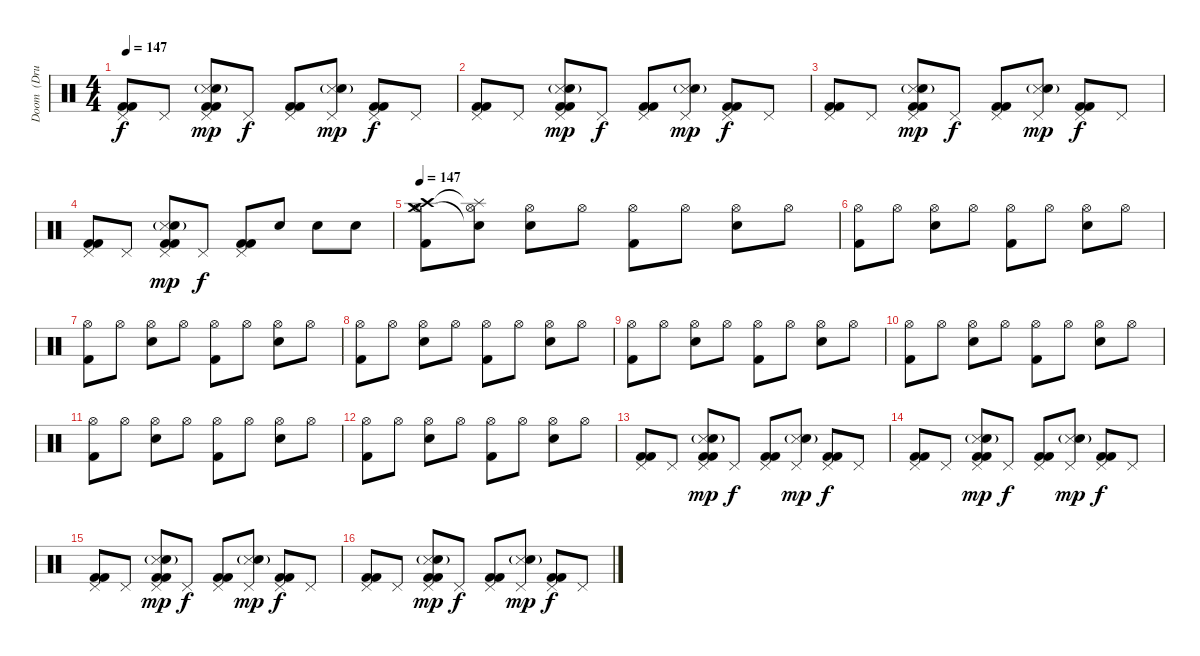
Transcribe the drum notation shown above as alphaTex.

\track ("Doom  (Drums)" "Doom  (Dru") {instrument percussion}
\staff {score}
\articulation defaults
\ts (4 4)
\tempo 147
\clef neutral
\ks c
("Pedal Hi-Hat (hit)" "Kick (hit) 2" "Kick (hit) 2").8{dy f} "Pedal Hi-Hat (hit)".8 ("Pedal Hi-Hat (hit)" "Snare (side stick) 3" "Electric Snare (hit)"{g} "Kick (hit) 2" "Kick (hit) 2").8{dy mp} "Pedal Hi-Hat (hit)".8{dy f} ("Pedal Hi-Hat (hit)" "Kick (hit) 2" "Kick (hit) 2").8 ("Pedal Hi-Hat (hit)" "Snare (side stick) 3" "Electric Snare (hit)"{g}).8{dy mp} ("Pedal Hi-Hat (hit)" "Kick (hit) 2" "Kick (hit) 2").8{dy f} "Pedal Hi-Hat (hit)".8 |
("Pedal Hi-Hat (hit)" "Kick (hit) 2" "Kick (hit) 2").8 "Pedal Hi-Hat (hit)".8 ("Pedal Hi-Hat (hit)" "Snare (side stick) 3" "Electric Snare (hit)"{g} "Kick (hit) 2" "Kick (hit) 2").8{dy mp} "Pedal Hi-Hat (hit)".8{dy f} ("Pedal Hi-Hat (hit)" "Kick (hit) 2" "Kick (hit) 2").8 ("Pedal Hi-Hat (hit)" "Snare (side stick) 3" "Electric Snare (hit)"{g}).8{dy mp} ("Pedal Hi-Hat (hit)" "Kick (hit) 2" "Kick (hit) 2").8{dy f} "Pedal Hi-Hat (hit)".8 |
("Pedal Hi-Hat (hit)" "Kick (hit) 2" "Kick (hit) 2").8 "Pedal Hi-Hat (hit)".8 ("Pedal Hi-Hat (hit)" "Snare (side stick) 3" "Electric Snare (hit)"{g} "Kick (hit) 2" "Kick (hit) 2").8{dy mp} "Pedal Hi-Hat (hit)".8{dy f} ("Pedal Hi-Hat (hit)" "Kick (hit) 2" "Kick (hit) 2").8 ("Pedal Hi-Hat (hit)" "Snare (side stick) 3" "Electric Snare (hit)"{g}).8{dy mp} ("Pedal Hi-Hat (hit)" "Kick (hit) 2" "Kick (hit) 2").8{dy f} "Pedal Hi-Hat (hit)".8 |
("Pedal Hi-Hat (hit)" "Kick (hit) 2" "Kick (hit) 2").8 "Pedal Hi-Hat (hit)".8 ("Pedal Hi-Hat (hit)" "Snare (side stick) 3" "Electric Snare (hit)"{g} "Kick (hit) 2" "Kick (hit) 2").8{dy mp} "Pedal Hi-Hat (hit)".8{dy f} ("Pedal Hi-Hat (hit)" "Kick (hit) 2" "Kick (hit) 2").8 "Electric Snare (hit)".8 "Electric Snare (hit)".8 "Electric Snare (hit)".8 |
\tempo 147
("Crash high (hit)" "Hi-Hat (open)" "Crash medium (hit)" "Kick (hit) 2").8 ("Splash (hit)"{t} "Hi-Hat (open)" "Snare (hit)"{t}).8 ("Hi-Hat (open)" "Electric Snare (hit)").8 "Hi-Hat (open)".8 ("Hi-Hat (open)" "Kick (hit) 2").8 "Hi-Hat (open)".8 ("Hi-Hat (open)" "Electric Snare (hit)").8 "Hi-Hat (open)".8 |
("Hi-Hat (open)" "Kick (hit) 2").8 "Hi-Hat (open)".8 ("Hi-Hat (open)" "Electric Snare (hit)").8 "Hi-Hat (open)".8 ("Hi-Hat (open)" "Kick (hit) 2").8 "Hi-Hat (open)".8 ("Hi-Hat (open)" "Electric Snare (hit)").8 "Hi-Hat (open)".8 |
("Hi-Hat (open)" "Kick (hit) 2").8 "Hi-Hat (open)".8 ("Hi-Hat (open)" "Electric Snare (hit)").8 "Hi-Hat (open)".8 ("Hi-Hat (open)" "Kick (hit) 2").8 "Hi-Hat (open)".8 ("Hi-Hat (open)" "Electric Snare (hit)").8 "Hi-Hat (open)".8 |
("Hi-Hat (open)" "Kick (hit) 2").8 "Hi-Hat (open)".8 ("Hi-Hat (open)" "Electric Snare (hit)").8 "Hi-Hat (open)".8 ("Hi-Hat (open)" "Kick (hit) 2").8 "Hi-Hat (open)".8 ("Hi-Hat (open)" "Electric Snare (hit)").8 "Hi-Hat (open)".8 |
("Hi-Hat (open)" "Kick (hit) 2").8 "Hi-Hat (open)".8 ("Hi-Hat (open)" "Electric Snare (hit)").8 "Hi-Hat (open)".8 ("Hi-Hat (open)" "Kick (hit) 2").8 "Hi-Hat (open)".8 ("Hi-Hat (open)" "Electric Snare (hit)").8 "Hi-Hat (open)".8 |
("Hi-Hat (open)" "Kick (hit) 2").8 "Hi-Hat (open)".8 ("Hi-Hat (open)" "Electric Snare (hit)").8 "Hi-Hat (open)".8 ("Hi-Hat (open)" "Kick (hit) 2").8 "Hi-Hat (open)".8 ("Hi-Hat (open)" "Electric Snare (hit)").8 "Hi-Hat (open)".8 |
("Hi-Hat (open)" "Kick (hit) 2").8 "Hi-Hat (open)".8 ("Hi-Hat (open)" "Electric Snare (hit)").8 "Hi-Hat (open)".8 ("Hi-Hat (open)" "Kick (hit) 2").8 "Hi-Hat (open)".8 ("Hi-Hat (open)" "Electric Snare (hit)").8 "Hi-Hat (open)".8 |
("Hi-Hat (open)" "Kick (hit) 2").8 "Hi-Hat (open)".8 ("Hi-Hat (open)" "Electric Snare (hit)").8 "Hi-Hat (open)".8 ("Hi-Hat (open)" "Kick (hit) 2").8 "Hi-Hat (open)".8 ("Hi-Hat (open)" "Electric Snare (hit)").8 "Hi-Hat (open)".8 |
("Pedal Hi-Hat (hit)" "Kick (hit) 2" "Kick (hit) 2").8 "Pedal Hi-Hat (hit)".8 ("Pedal Hi-Hat (hit)" "Snare (side stick) 3" "Electric Snare (hit)"{g} "Kick (hit) 2" "Kick (hit) 2").8{dy mp} "Pedal Hi-Hat (hit)".8{dy f} ("Pedal Hi-Hat (hit)" "Kick (hit) 2" "Kick (hit) 2").8 ("Pedal Hi-Hat (hit)" "Snare (side stick) 3" "Electric Snare (hit)"{g}).8{dy mp} ("Pedal Hi-Hat (hit)" "Kick (hit) 2" "Kick (hit) 2").8{dy f} "Pedal Hi-Hat (hit)".8 |
("Pedal Hi-Hat (hit)" "Kick (hit) 2" "Kick (hit) 2").8 "Pedal Hi-Hat (hit)".8 ("Pedal Hi-Hat (hit)" "Snare (side stick) 3" "Electric Snare (hit)"{g} "Kick (hit) 2" "Kick (hit) 2").8{dy mp} "Pedal Hi-Hat (hit)".8{dy f} ("Pedal Hi-Hat (hit)" "Kick (hit) 2" "Kick (hit) 2").8 ("Pedal Hi-Hat (hit)" "Snare (side stick) 3" "Electric Snare (hit)"{g}).8{dy mp} ("Pedal Hi-Hat (hit)" "Kick (hit) 2" "Kick (hit) 2").8{dy f} "Pedal Hi-Hat (hit)".8 |
("Pedal Hi-Hat (hit)" "Kick (hit) 2" "Kick (hit) 2").8 "Pedal Hi-Hat (hit)".8 ("Pedal Hi-Hat (hit)" "Snare (side stick) 3" "Electric Snare (hit)"{g} "Kick (hit) 2" "Kick (hit) 2").8{dy mp} "Pedal Hi-Hat (hit)".8{dy f} ("Pedal Hi-Hat (hit)" "Kick (hit) 2" "Kick (hit) 2").8 ("Pedal Hi-Hat (hit)" "Snare (side stick) 3" "Electric Snare (hit)"{g}).8{dy mp} ("Pedal Hi-Hat (hit)" "Kick (hit) 2" "Kick (hit) 2").8{dy f} "Pedal Hi-Hat (hit)".8 |
("Pedal Hi-Hat (hit)" "Kick (hit) 2" "Kick (hit) 2").8 "Pedal Hi-Hat (hit)".8 ("Pedal Hi-Hat (hit)" "Snare (side stick) 3" "Electric Snare (hit)"{g} "Kick (hit) 2" "Kick (hit) 2").8{dy mp} "Pedal Hi-Hat (hit)".8{dy f} ("Pedal Hi-Hat (hit)" "Kick (hit) 2" "Kick (hit) 2").8 ("Pedal Hi-Hat (hit)" "Snare (side stick) 3" "Electric Snare (hit)"{g}).8{dy mp} ("Pedal Hi-Hat (hit)" "Kick (hit) 2" "Kick (hit) 2").8{dy f} "Pedal Hi-Hat (hit)".8
